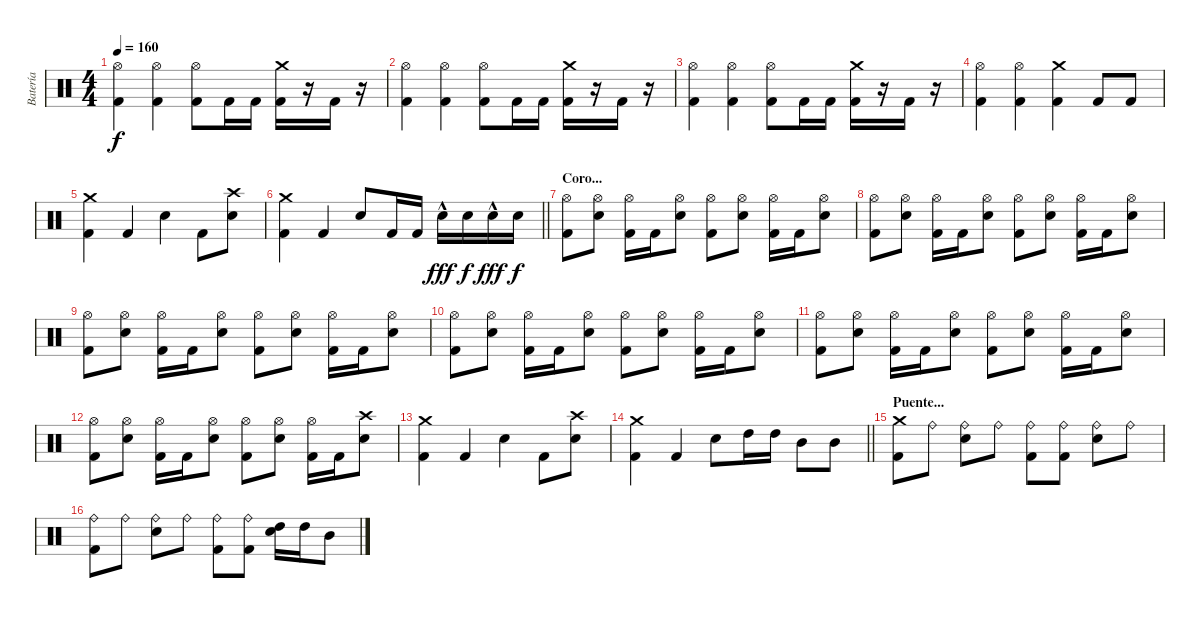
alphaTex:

\track ("Batería" "Batería") {instrument percussion}
\staff {score}
\articulation defaults
\ts (4 4)
\tempo 160
\clef neutral
\ks c
("Hi-Hat (open)" "Kick (hit) 2").4{dy f} ("Hi-Hat (open)" "Kick (hit) 2").4 ("Hi-Hat (open)" "Kick (hit) 2").8 "Kick (hit) 2".16 "Kick (hit) 2".16 ("Crash medium (hit)" "Kick (hit) 2").16 r.16 "Kick (hit) 2".16 r.16 |
("Hi-Hat (open)" "Kick (hit) 2").4 ("Hi-Hat (open)" "Kick (hit) 2").4 ("Hi-Hat (open)" "Kick (hit) 2").8 "Kick (hit) 2".16 "Kick (hit) 2".16 ("Crash medium (hit)" "Kick (hit) 2").16 r.16 "Kick (hit) 2".16 r.16 |
("Hi-Hat (open)" "Kick (hit) 2").4 ("Hi-Hat (open)" "Kick (hit) 2").4 ("Hi-Hat (open)" "Kick (hit) 2").8 "Kick (hit) 2".16 "Kick (hit) 2".16 ("Crash medium (hit)" "Kick (hit) 2").16 r.16 "Kick (hit) 2".16 r.16 |
("Hi-Hat (open)" "Kick (hit) 2").4 ("Hi-Hat (open)" "Kick (hit) 2").4 ("Crash medium (hit)" "Kick (hit) 2").4 "Kick (hit) 2".8 "Kick (hit) 2".8 |
("Crash medium (hit)" "Kick (hit) 2").4 "Kick (hit) 2".4 "Snare (hit) 2".4 "Kick (hit) 2".8 ("Crash high (hit)" "Snare (hit) 2").8 |
\barLineRight lightlight
("Crash medium (hit)" "Kick (hit) 2").4 "Kick (hit) 2".4 "Snare (hit) 2".8 "Kick (hit) 2".16 "Kick (hit) 2".16 "Snare (hit) 2"{hac}.16{dy fff} "Snare (hit) 2".16{dy f} "Snare (hit) 2"{hac}.16{dy fff} "Snare (hit) 2".16{dy f} |
\section ("" "Coro...")
("Hi-Hat (open)" "Kick (hit) 2").8 ("Hi-Hat (open)" "Snare (hit) 2").8 ("Hi-Hat (open)" "Kick (hit) 2").16 "Kick (hit) 2".16 ("Hi-Hat (open)" "Snare (hit) 2").8 ("Hi-Hat (open)" "Kick (hit) 2").8 ("Hi-Hat (open)" "Snare (hit) 2").8 ("Hi-Hat (open)" "Kick (hit) 2").16 "Kick (hit) 2".16 ("Hi-Hat (open)" "Snare (hit) 2").8 |
("Hi-Hat (open)" "Kick (hit) 2").8 ("Hi-Hat (open)" "Snare (hit) 2").8 ("Hi-Hat (open)" "Kick (hit) 2").16 "Kick (hit) 2".16 ("Hi-Hat (open)" "Snare (hit) 2").8 ("Hi-Hat (open)" "Kick (hit) 2").8 ("Hi-Hat (open)" "Snare (hit) 2").8 ("Hi-Hat (open)" "Kick (hit) 2").16 "Kick (hit) 2".16 ("Hi-Hat (open)" "Snare (hit) 2").8 |
("Hi-Hat (open)" "Kick (hit) 2").8 ("Hi-Hat (open)" "Snare (hit) 2").8 ("Hi-Hat (open)" "Kick (hit) 2").16 "Kick (hit) 2".16 ("Hi-Hat (open)" "Snare (hit) 2").8 ("Hi-Hat (open)" "Kick (hit) 2").8 ("Hi-Hat (open)" "Snare (hit) 2").8 ("Hi-Hat (open)" "Kick (hit) 2").16 "Kick (hit) 2".16 ("Hi-Hat (open)" "Snare (hit) 2").8 |
("Hi-Hat (open)" "Kick (hit) 2").8 ("Hi-Hat (open)" "Snare (hit) 2").8 ("Hi-Hat (open)" "Kick (hit) 2").16 "Kick (hit) 2".16 ("Hi-Hat (open)" "Snare (hit) 2").8 ("Hi-Hat (open)" "Kick (hit) 2").8 ("Hi-Hat (open)" "Snare (hit) 2").8 ("Hi-Hat (open)" "Kick (hit) 2").16 "Kick (hit) 2".16 ("Hi-Hat (open)" "Snare (hit) 2").8 |
("Hi-Hat (open)" "Kick (hit) 2").8 ("Hi-Hat (open)" "Snare (hit) 2").8 ("Hi-Hat (open)" "Kick (hit) 2").16 "Kick (hit) 2".16 ("Hi-Hat (open)" "Snare (hit) 2").8 ("Hi-Hat (open)" "Kick (hit) 2").8 ("Hi-Hat (open)" "Snare (hit) 2").8 ("Hi-Hat (open)" "Kick (hit) 2").16 "Kick (hit) 2".16 ("Hi-Hat (open)" "Snare (hit) 2").8 |
("Hi-Hat (open)" "Kick (hit) 2").8 ("Hi-Hat (open)" "Snare (hit) 2").8 ("Hi-Hat (open)" "Kick (hit) 2").16 "Kick (hit) 2".16 ("Hi-Hat (open)" "Snare (hit) 2").8 ("Hi-Hat (open)" "Kick (hit) 2").8 ("Hi-Hat (open)" "Snare (hit) 2").8 ("Hi-Hat (open)" "Kick (hit) 2").16 "Kick (hit) 2".16 ("Crash high (hit)" "Snare (hit) 2").8 |
("Crash medium (hit)" "Kick (hit) 2").4 "Kick (hit) 2".4 "Snare (hit) 2".4 "Kick (hit) 2".8 ("Crash high (hit)" "Snare (hit) 2").8 |
\barLineRight lightlight
("Crash medium (hit)" "Kick (hit) 2").4 "Kick (hit) 2".4 "Snare (hit) 2".8 "High Tom (hit)".16 "High Tom (hit)".16 "Mid Tom (hit)".8 "Mid Tom (hit)".8 |
\section ("" "Puente...")
("Crash medium (hit)" "Kick (hit) 2").8 "Ride (bell)".8 ("Ride (bell)" "Snare (hit) 2").8 "Ride (bell)".8 ("Ride (bell)" "Kick (hit) 2").8 ("Ride (bell)" "Kick (hit) 2").8 ("Ride (bell)" "Snare (hit) 2").8 "Ride (bell)".8 |
("Ride (bell)" "Kick (hit) 2").8 "Ride (bell)".8 ("Ride (bell)" "Snare (hit) 2").8 "Ride (bell)".8 ("Ride (bell)" "Kick (hit) 2").8 ("Ride (bell)" "Kick (hit) 2").8 ("High Tom (hit)" "Snare (hit) 2").16 "High Tom (hit)".16 "Mid Tom (hit)".8
